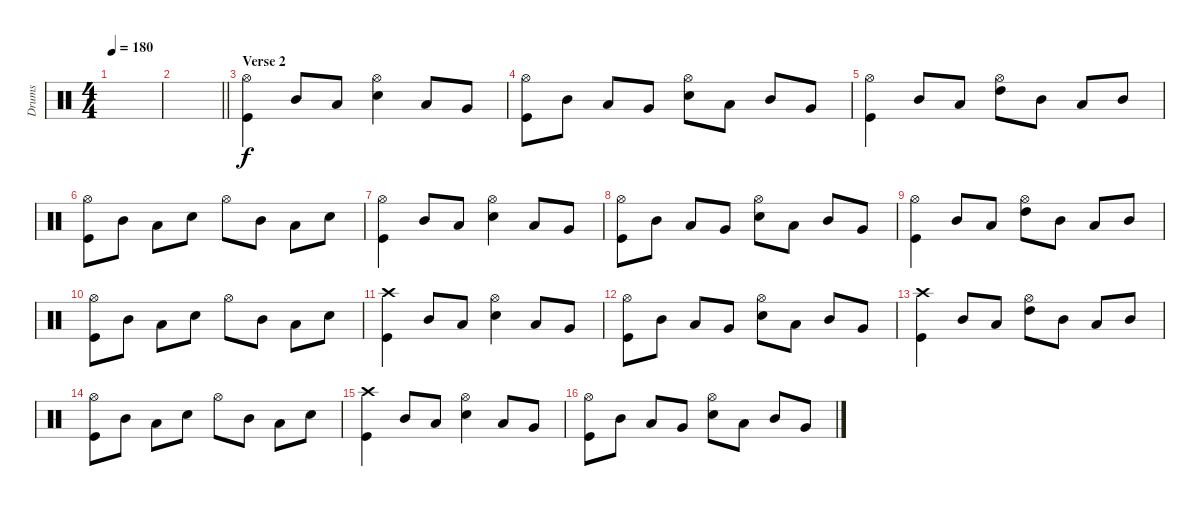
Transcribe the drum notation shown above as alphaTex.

\track ("Drums" "Drums") {instrument percussion}
\staff {score}
\articulation defaults
\ts (4 4)
\tempo 180
\clef neutral
\ks c
|
\barLineRight lightlight
|
\section ("" "Verse 2")
("Hi-Hat (open)" "Kick (hit)").4 "Mid Tom (hit)".8 "Low Tom (hit)".8 ("Hi-Hat (open)" "Snare (hit) 2").4 "Low Tom (hit)".8 "Very Low Tom (hit)".8 |
("Hi-Hat (open)" "Kick (hit)").8 "Mid Tom (hit)".8 "Low Tom (hit)".8 "Very Low Tom (hit)".8 ("Hi-Hat (open)" "Snare (hit) 2").8 "Low Tom (hit)".8 "Mid Tom (hit)".8 "Very Low Tom (hit)".8 |
("Hi-Hat (open)" "Kick (hit)").4 "Mid Tom (hit)".8 "Low Tom (hit)".8 ("Hi-Hat (open)" "High Tom (hit)").8 "Mid Tom (hit)".8 "Low Tom (hit)".8 "Mid Tom (hit)".8 |
("Hi-Hat (open)" "Kick (hit)").8 "Mid Tom (hit)".8 "Low Tom (hit)".8 "Snare (hit) 2".8 "Hi-Hat (open)".8 "Mid Tom (hit)".8 "Low Tom (hit)".8 "Snare (hit) 2".8 |
("Hi-Hat (open)" "Kick (hit)").4 "Mid Tom (hit)".8 "Low Tom (hit)".8 ("Hi-Hat (open)" "Snare (hit) 2").4 "Low Tom (hit)".8 "Very Low Tom (hit)".8 |
("Hi-Hat (open)" "Kick (hit)").8 "Mid Tom (hit)".8 "Low Tom (hit)".8 "Very Low Tom (hit)".8 ("Hi-Hat (open)" "Snare (hit) 2").8 "Low Tom (hit)".8 "Mid Tom (hit)".8 "Very Low Tom (hit)".8 |
("Hi-Hat (open)" "Kick (hit)").4 "Mid Tom (hit)".8 "Low Tom (hit)".8 ("Hi-Hat (open)" "High Tom (hit)").8 "Mid Tom (hit)".8 "Low Tom (hit)".8 "Mid Tom (hit)".8 |
("Hi-Hat (open)" "Kick (hit)").8 "Mid Tom (hit)".8 "Low Tom (hit)".8 "Snare (hit) 2".8 "Hi-Hat (open)".8 "Mid Tom (hit)".8 "Low Tom (hit)".8 "Snare (hit) 2".8 |
("Crash high (hit)" "Kick (hit)").4 "Mid Tom (hit)".8 "Low Tom (hit)".8 ("Hi-Hat (open)" "Snare (hit) 2").4 "Low Tom (hit)".8 "Very Low Tom (hit)".8 |
("Hi-Hat (open)" "Kick (hit)").8 "Mid Tom (hit)".8 "Low Tom (hit)".8 "Very Low Tom (hit)".8 ("Hi-Hat (open)" "Snare (hit) 2").8 "Low Tom (hit)".8 "Mid Tom (hit)".8 "Very Low Tom (hit)".8 |
("Crash high (hit)" "Kick (hit)").4 "Mid Tom (hit)".8 "Low Tom (hit)".8 ("Hi-Hat (open)" "High Tom (hit)").8 "Mid Tom (hit)".8 "Low Tom (hit)".8 "Mid Tom (hit)".8 |
("Hi-Hat (open)" "Kick (hit)").8 "Mid Tom (hit)".8 "Low Tom (hit)".8 "Snare (hit) 2".8 "Hi-Hat (open)".8 "Mid Tom (hit)".8 "Low Tom (hit)".8 "Snare (hit) 2".8 |
("Crash high (hit)" "Kick (hit)").4 "Mid Tom (hit)".8 "Low Tom (hit)".8 ("Hi-Hat (open)" "Snare (hit) 2").4 "Low Tom (hit)".8 "Very Low Tom (hit)".8 |
("Hi-Hat (open)" "Kick (hit)").8 "Mid Tom (hit)".8 "Low Tom (hit)".8 "Very Low Tom (hit)".8 ("Hi-Hat (open)" "Snare (hit) 2").8 "Low Tom (hit)".8 "Mid Tom (hit)".8 "Very Low Tom (hit)".8
